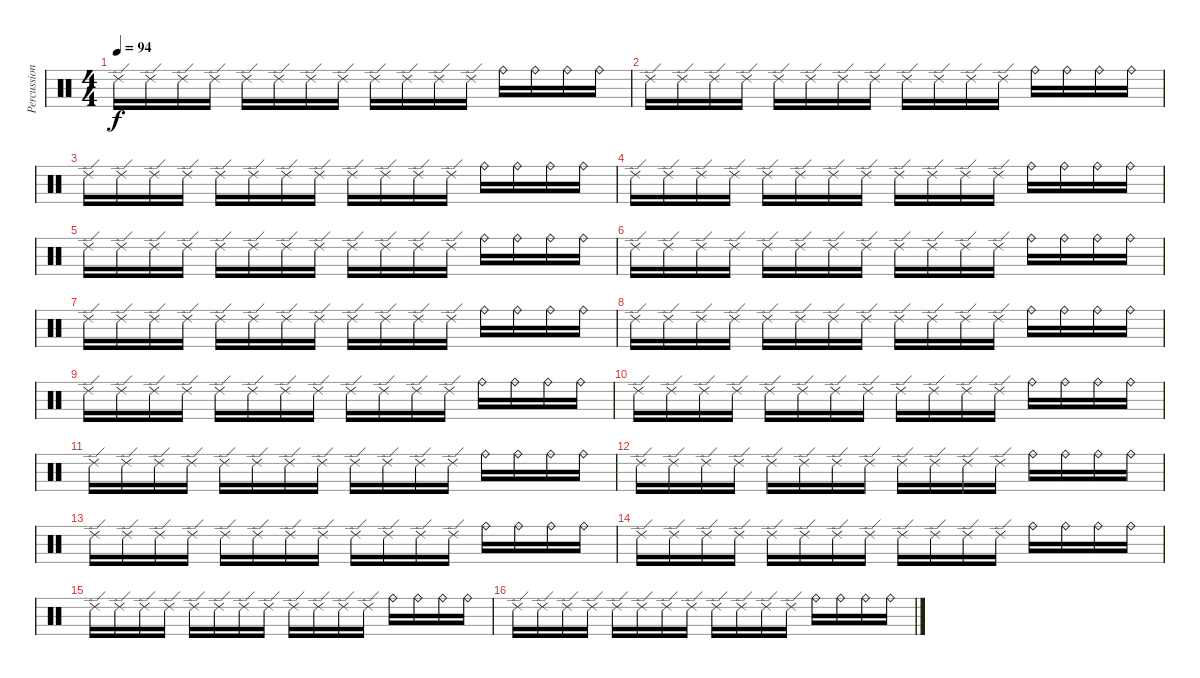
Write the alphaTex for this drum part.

\track ("Percussion" "Percussion") {instrument percussion}
\staff {score}
\articulation defaults
\ts (4 4)
\tempo 94
\clef neutral
\ks c "Ride (edge) 2".16{dy f} "Ride (edge) 2".16 "Ride (edge) 2".16 "Ride (edge) 2".16 "Ride (edge) 2".16 "Ride (edge) 2".16 "Ride (edge) 2".16 "Ride (edge) 2".16 "Ride (edge) 2".16 "Ride (edge) 2".16 "Ride (edge) 2".16 "Ride (edge) 2".16 "Ride (bell)".16 "Ride (bell)".16 "Ride (bell)".16 "Ride (bell)".16
|
"Ride (edge) 2".16 "Ride (edge) 2".16 "Ride (edge) 2".16 "Ride (edge) 2".16 "Ride (edge) 2".16 "Ride (edge) 2".16 "Ride (edge) 2".16 "Ride (edge) 2".16 "Ride (edge) 2".16 "Ride (edge) 2".16 "Ride (edge) 2".16 "Ride (edge) 2".16 "Ride (bell)".16 "Ride (bell)".16 "Ride (bell)".16 "Ride (bell)".16 |
"Ride (edge) 2".16 "Ride (edge) 2".16 "Ride (edge) 2".16 "Ride (edge) 2".16 "Ride (edge) 2".16 "Ride (edge) 2".16 "Ride (edge) 2".16 "Ride (edge) 2".16 "Ride (edge) 2".16 "Ride (edge) 2".16 "Ride (edge) 2".16 "Ride (edge) 2".16 "Ride (bell)".16 "Ride (bell)".16 "Ride (bell)".16 "Ride (bell)".16 |
"Ride (edge) 2".16 "Ride (edge) 2".16 "Ride (edge) 2".16 "Ride (edge) 2".16 "Ride (edge) 2".16 "Ride (edge) 2".16 "Ride (edge) 2".16 "Ride (edge) 2".16 "Ride (edge) 2".16 "Ride (edge) 2".16 "Ride (edge) 2".16 "Ride (edge) 2".16 "Ride (bell)".16 "Ride (bell)".16 "Ride (bell)".16 "Ride (bell)".16 |
"Ride (edge) 2".16 "Ride (edge) 2".16 "Ride (edge) 2".16 "Ride (edge) 2".16 "Ride (edge) 2".16 "Ride (edge) 2".16 "Ride (edge) 2".16 "Ride (edge) 2".16 "Ride (edge) 2".16 "Ride (edge) 2".16 "Ride (edge) 2".16 "Ride (edge) 2".16 "Ride (bell)".16 "Ride (bell)".16 "Ride (bell)".16 "Ride (bell)".16 |
"Ride (edge) 2".16 "Ride (edge) 2".16 "Ride (edge) 2".16 "Ride (edge) 2".16 "Ride (edge) 2".16 "Ride (edge) 2".16 "Ride (edge) 2".16 "Ride (edge) 2".16 "Ride (edge) 2".16 "Ride (edge) 2".16 "Ride (edge) 2".16 "Ride (edge) 2".16 "Ride (bell)".16 "Ride (bell)".16 "Ride (bell)".16 "Ride (bell)".16 |
"Ride (edge) 2".16 "Ride (edge) 2".16 "Ride (edge) 2".16 "Ride (edge) 2".16 "Ride (edge) 2".16 "Ride (edge) 2".16 "Ride (edge) 2".16 "Ride (edge) 2".16 "Ride (edge) 2".16 "Ride (edge) 2".16 "Ride (edge) 2".16 "Ride (edge) 2".16 "Ride (bell)".16 "Ride (bell)".16 "Ride (bell)".16 "Ride (bell)".16 |
"Ride (edge) 2".16 "Ride (edge) 2".16 "Ride (edge) 2".16 "Ride (edge) 2".16 "Ride (edge) 2".16 "Ride (edge) 2".16 "Ride (edge) 2".16 "Ride (edge) 2".16 "Ride (edge) 2".16 "Ride (edge) 2".16 "Ride (edge) 2".16 "Ride (edge) 2".16 "Ride (bell)".16 "Ride (bell)".16 "Ride (bell)".16 "Ride (bell)".16 |
"Ride (edge) 2".16 "Ride (edge) 2".16 "Ride (edge) 2".16 "Ride (edge) 2".16 "Ride (edge) 2".16 "Ride (edge) 2".16 "Ride (edge) 2".16 "Ride (edge) 2".16 "Ride (edge) 2".16 "Ride (edge) 2".16 "Ride (edge) 2".16 "Ride (edge) 2".16 "Ride (bell)".16 "Ride (bell)".16 "Ride (bell)".16 "Ride (bell)".16 |
"Ride (edge) 2".16 "Ride (edge) 2".16 "Ride (edge) 2".16 "Ride (edge) 2".16 "Ride (edge) 2".16 "Ride (edge) 2".16 "Ride (edge) 2".16 "Ride (edge) 2".16 "Ride (edge) 2".16 "Ride (edge) 2".16 "Ride (edge) 2".16 "Ride (edge) 2".16 "Ride (bell)".16 "Ride (bell)".16 "Ride (bell)".16 "Ride (bell)".16 |
"Ride (edge) 2".16 "Ride (edge) 2".16 "Ride (edge) 2".16 "Ride (edge) 2".16 "Ride (edge) 2".16 "Ride (edge) 2".16 "Ride (edge) 2".16 "Ride (edge) 2".16 "Ride (edge) 2".16 "Ride (edge) 2".16 "Ride (edge) 2".16 "Ride (edge) 2".16 "Ride (bell)".16 "Ride (bell)".16 "Ride (bell)".16 "Ride (bell)".16 |
"Ride (edge) 2".16 "Ride (edge) 2".16 "Ride (edge) 2".16 "Ride (edge) 2".16 "Ride (edge) 2".16 "Ride (edge) 2".16 "Ride (edge) 2".16 "Ride (edge) 2".16 "Ride (edge) 2".16 "Ride (edge) 2".16 "Ride (edge) 2".16 "Ride (edge) 2".16 "Ride (bell)".16 "Ride (bell)".16 "Ride (bell)".16 "Ride (bell)".16 |
"Ride (edge) 2".16 "Ride (edge) 2".16 "Ride (edge) 2".16 "Ride (edge) 2".16 "Ride (edge) 2".16 "Ride (edge) 2".16 "Ride (edge) 2".16 "Ride (edge) 2".16 "Ride (edge) 2".16 "Ride (edge) 2".16 "Ride (edge) 2".16 "Ride (edge) 2".16 "Ride (bell)".16 "Ride (bell)".16 "Ride (bell)".16 "Ride (bell)".16 |
"Ride (edge) 2".16 "Ride (edge) 2".16 "Ride (edge) 2".16 "Ride (edge) 2".16 "Ride (edge) 2".16 "Ride (edge) 2".16 "Ride (edge) 2".16 "Ride (edge) 2".16 "Ride (edge) 2".16 "Ride (edge) 2".16 "Ride (edge) 2".16 "Ride (edge) 2".16 "Ride (bell)".16 "Ride (bell)".16 "Ride (bell)".16 "Ride (bell)".16 |
"Ride (edge) 2".16 "Ride (edge) 2".16 "Ride (edge) 2".16 "Ride (edge) 2".16 "Ride (edge) 2".16 "Ride (edge) 2".16 "Ride (edge) 2".16 "Ride (edge) 2".16 "Ride (edge) 2".16 "Ride (edge) 2".16 "Ride (edge) 2".16 "Ride (edge) 2".16 "Ride (bell)".16 "Ride (bell)".16 "Ride (bell)".16 "Ride (bell)".16 |
"Ride (edge) 2".16 "Ride (edge) 2".16 "Ride (edge) 2".16 "Ride (edge) 2".16 "Ride (edge) 2".16 "Ride (edge) 2".16 "Ride (edge) 2".16 "Ride (edge) 2".16 "Ride (edge) 2".16 "Ride (edge) 2".16 "Ride (edge) 2".16 "Ride (edge) 2".16 "Ride (bell)".16 "Ride (bell)".16 "Ride (bell)".16 "Ride (bell)".16
